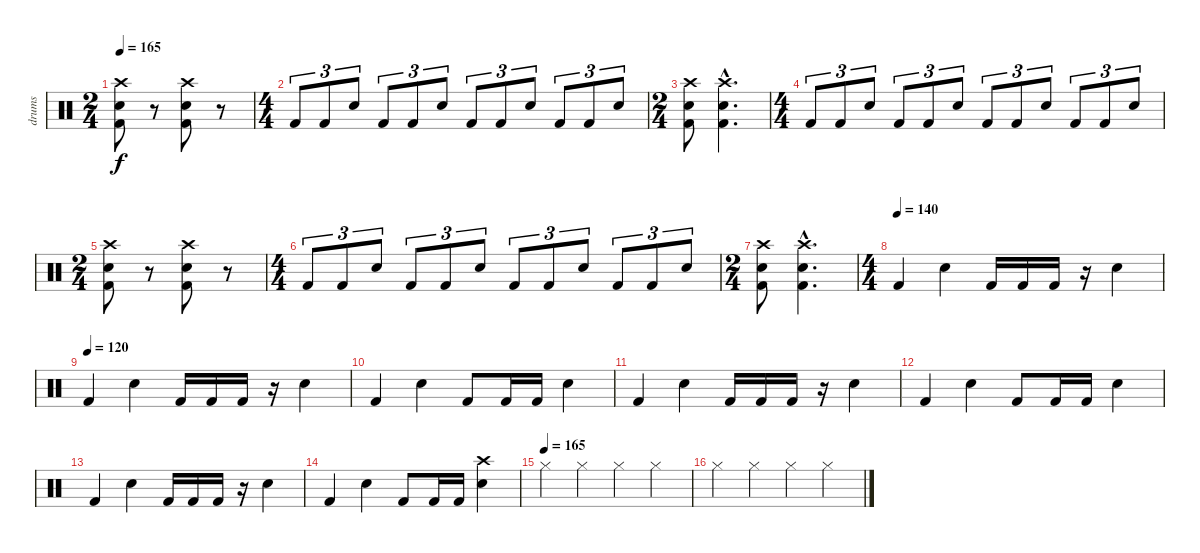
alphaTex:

\track ("drums" "drums") {instrument percussion}
\staff {score}
\articulation defaults
\ts (2 4)
\tempo 165
\clef neutral
\ks c
("Crash high (hit)" "Kick (hit) 2" "Electric Snare (hit)").8{dy f} r.8 ("Crash high (hit)" "Electric Snare (hit)" "Kick (hit) 2").8 r.8 |
\ts (4 4)
"Kick (hit) 2".8{tu (3 2)} "Kick (hit) 2".8{tu (3 2)} "Electric Snare (hit)".8{tu (3 2)} "Kick (hit) 2".8{tu (3 2)} "Kick (hit) 2".8{tu (3 2)} "Electric Snare (hit)".8{tu (3 2)} "Kick (hit) 2".8{tu (3 2)} "Kick (hit) 2".8{tu (3 2)} "Electric Snare (hit)".8{tu (3 2)} "Kick (hit) 2".8{tu (3 2)} "Kick (hit) 2".8{tu (3 2)} "Electric Snare (hit)".8{tu (3 2)} |
\ts (2 4)
("Crash high (hit)" "Electric Snare (hit)" "Kick (hit) 2").8 ("Crash high (hit)"{hac} "Electric Snare (hit)"{hac} "Kick (hit) 2"{hac}).4{d} |
\ts (4 4)
"Kick (hit) 2".8{tu (3 2)} "Kick (hit) 2".8{tu (3 2)} "Electric Snare (hit)".8{tu (3 2)} "Kick (hit) 2".8{tu (3 2)} "Kick (hit) 2".8{tu (3 2)} "Electric Snare (hit)".8{tu (3 2)} "Kick (hit) 2".8{tu (3 2)} "Kick (hit) 2".8{tu (3 2)} "Electric Snare (hit)".8{tu (3 2)} "Kick (hit) 2".8{tu (3 2)} "Kick (hit) 2".8{tu (3 2)} "Electric Snare (hit)".8{tu (3 2)} |
\ts (2 4)
("Crash high (hit)" "Kick (hit) 2" "Electric Snare (hit)").8 r.8 ("Crash high (hit)" "Electric Snare (hit)" "Kick (hit) 2").8 r.8 |
\ts (4 4)
"Kick (hit) 2".8{tu (3 2)} "Kick (hit) 2".8{tu (3 2)} "Electric Snare (hit)".8{tu (3 2)} "Kick (hit) 2".8{tu (3 2)} "Kick (hit) 2".8{tu (3 2)} "Electric Snare (hit)".8{tu (3 2)} "Kick (hit) 2".8{tu (3 2)} "Kick (hit) 2".8{tu (3 2)} "Electric Snare (hit)".8{tu (3 2)} "Kick (hit) 2".8{tu (3 2)} "Kick (hit) 2".8{tu (3 2)} "Electric Snare (hit)".8{tu (3 2)} |
\ts (2 4)
("Crash high (hit)" "Electric Snare (hit)" "Kick (hit) 2").8 ("Crash high (hit)"{hac} "Electric Snare (hit)"{hac} "Kick (hit) 2"{hac}).4{d} |
\ts (4 4)
\tempo (140)
"Kick (hit) 2".4 "Electric Snare (hit)".4 "Kick (hit) 2".16 "Kick (hit) 2".16 "Kick (hit) 2".16 r.16 "Electric Snare (hit)".4 |
\tempo (120)
"Kick (hit) 2".4 "Electric Snare (hit)".4 "Kick (hit) 2".16 "Kick (hit) 2".16 "Kick (hit) 2".16 r.16 "Electric Snare (hit)".4 |
"Kick (hit) 2".4 "Electric Snare (hit)".4 "Kick (hit) 2".8 "Kick (hit) 2".16 "Kick (hit) 2".16 "Electric Snare (hit)".4 |
"Kick (hit) 2".4 "Electric Snare (hit)".4 "Kick (hit) 2".16 "Kick (hit) 2".16 "Kick (hit) 2".16 r.16 "Electric Snare (hit)".4 |
"Kick (hit) 2".4 "Electric Snare (hit)".4 "Kick (hit) 2".8 "Kick (hit) 2".16 "Kick (hit) 2".16 "Electric Snare (hit)".4 |
"Kick (hit) 2".4 "Electric Snare (hit)".4 "Kick (hit) 2".16 "Kick (hit) 2".16 "Kick (hit) 2".16 r.16 "Electric Snare (hit)".4 |
"Kick (hit) 2".4 "Electric Snare (hit)".4 "Kick (hit) 2".8 "Kick (hit) 2".16 "Kick (hit) 2".16 ("Crash high (hit)" "Electric Snare (hit)").4 |
\tempo (165)
"Hi-Hat (closed)".4 "Hi-Hat (closed)".4 "Hi-Hat (closed)".4 "Hi-Hat (closed)".4 |
"Hi-Hat (closed)".4 "Hi-Hat (closed)".4 "Hi-Hat (closed)".4 "Hi-Hat (closed)".4
